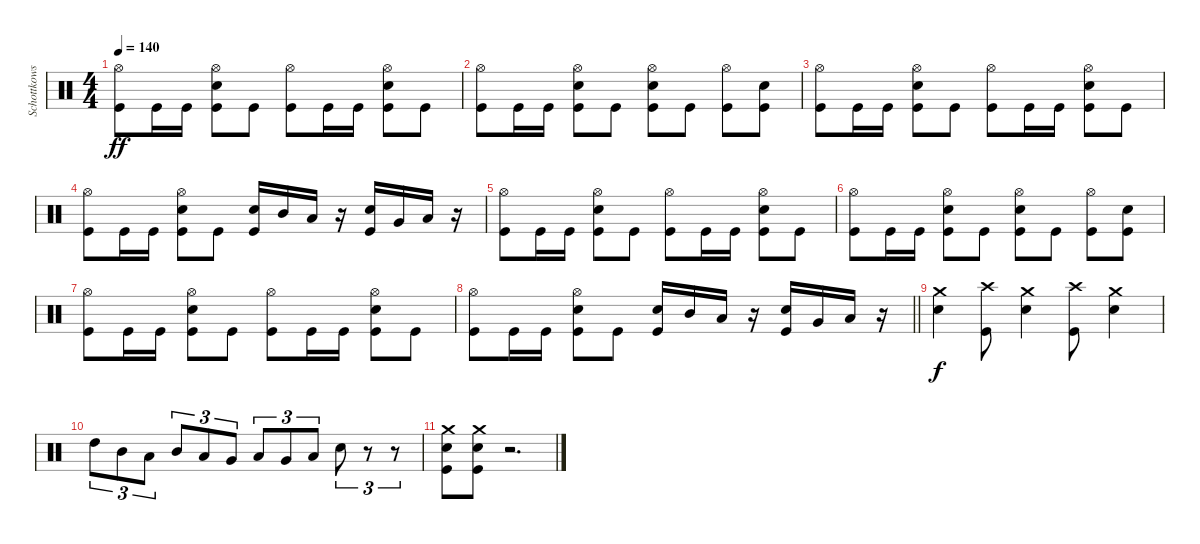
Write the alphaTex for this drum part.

\track ("Schottkowski" "Schottkows") {instrument percussion}
\staff {score}
\articulation defaults
\ts (4 4)
\section ("" "")
\tempo 140
\clef neutral
\ks c
("Hi-Hat (open)" "Kick (hit)").8{dy ff} "Kick (hit)".16 "Kick (hit)".16 ("Hi-Hat (open)" "Snare (hit) 2" "Kick (hit)").8 "Kick (hit)".8 ("Hi-Hat (open)" "Kick (hit)").8 "Kick (hit)".16 "Kick (hit)".16 ("Hi-Hat (open)" "Snare (hit) 2" "Kick (hit)").8 "Kick (hit)".8 |
("Hi-Hat (open)" "Kick (hit)").8 "Kick (hit)".16 "Kick (hit)".16 ("Hi-Hat (open)" "Snare (hit) 2" "Kick (hit)").8 "Kick (hit)".8 ("Hi-Hat (open)" "Snare (hit) 2" "Kick (hit)").8 "Kick (hit)".8 ("Hi-Hat (open)" "Kick (hit)").8 ("Snare (hit) 2" "Kick (hit)").8 |
("Hi-Hat (open)" "Kick (hit)").8 "Kick (hit)".16 "Kick (hit)".16 ("Hi-Hat (open)" "Snare (hit) 2" "Kick (hit)").8 "Kick (hit)".8 ("Hi-Hat (open)" "Kick (hit)").8 "Kick (hit)".16 "Kick (hit)".16 ("Hi-Hat (open)" "Snare (hit) 2" "Kick (hit)").8 "Kick (hit)".8 |
("Hi-Hat (open)" "Kick (hit)").8 "Kick (hit)".16 "Kick (hit)".16 ("Hi-Hat (open)" "Snare (hit) 2" "Kick (hit)").8 "Kick (hit)".8 ("Snare (hit) 2" "Kick (hit)").16 "Mid Tom (hit)".16 "Low Tom (hit)".16 r.16 ("Snare (hit) 2" "Kick (hit)").16 "Very Low Tom (hit)".16 "Low Floor Tom (hit)".16 r.16 |
("Hi-Hat (open)" "Kick (hit)").8 "Kick (hit)".16 "Kick (hit)".16 ("Hi-Hat (open)" "Snare (hit) 2" "Kick (hit)").8 "Kick (hit)".8 ("Hi-Hat (open)" "Kick (hit)").8 "Kick (hit)".16 "Kick (hit)".16 ("Hi-Hat (open)" "Snare (hit) 2" "Kick (hit)").8 "Kick (hit)".8 |
("Hi-Hat (open)" "Kick (hit)").8 "Kick (hit)".16 "Kick (hit)".16 ("Hi-Hat (open)" "Snare (hit) 2" "Kick (hit)").8 "Kick (hit)".8 ("Hi-Hat (open)" "Snare (hit) 2" "Kick (hit)").8 "Kick (hit)".8 ("Hi-Hat (open)" "Kick (hit)").8 ("Snare (hit) 2" "Kick (hit)").8 |
("Hi-Hat (open)" "Kick (hit)").8 "Kick (hit)".16 "Kick (hit)".16 ("Hi-Hat (open)" "Snare (hit) 2" "Kick (hit)").8 "Kick (hit)".8 ("Hi-Hat (open)" "Kick (hit)").8 "Kick (hit)".16 "Kick (hit)".16 ("Hi-Hat (open)" "Snare (hit) 2" "Kick (hit)").8 "Kick (hit)".8 |
\barLineRight lightlight
("Hi-Hat (open)" "Kick (hit)").8 "Kick (hit)".16 "Kick (hit)".16 ("Hi-Hat (open)" "Snare (hit) 2" "Kick (hit)").8 "Kick (hit)".8 ("Snare (hit) 2" "Kick (hit)").16 "Mid Tom (hit)".16 "Low Tom (hit)".16 r.16 ("Snare (hit) 2" "Kick (hit)").16 "Very Low Tom (hit)".16 "Low Floor Tom (hit)".16 r.16 |
("Crash medium (hit)" "Snare (hit) 2").4{dy f} ("Crash high (hit)" "Kick (hit)").8 ("Crash medium (hit)" "Snare (hit) 2").4 ("Crash high (hit)" "Kick (hit)").8 ("Crash medium (hit)" "Snare (hit) 2").4 |
"High Tom (hit)".8{tu (3 2)} "Mid Tom (hit)".8{tu (3 2)} "Low Tom (hit)".8{tu (3 2)} "Mid Tom (hit)".8{tu (3 2)} "Low Tom (hit)".8{tu (3 2)} "Very Low Tom (hit)".8{tu (3 2)} "Low Tom (hit)".8{tu (3 2)} "Very Low Tom (hit)".8{tu (3 2)} "Low Floor Tom (hit)".8{tu (3 2)} "Snare (hit) 2".8{tu (3 2)} r.8{tu (3 2)} r.8{tu (3 2)} |
("Crash medium (hit)" "Snare (hit) 2" "Kick (hit)").8 ("Crash medium (hit)" "Snare (hit) 2" "Kick (hit)").8 r.2{d}
